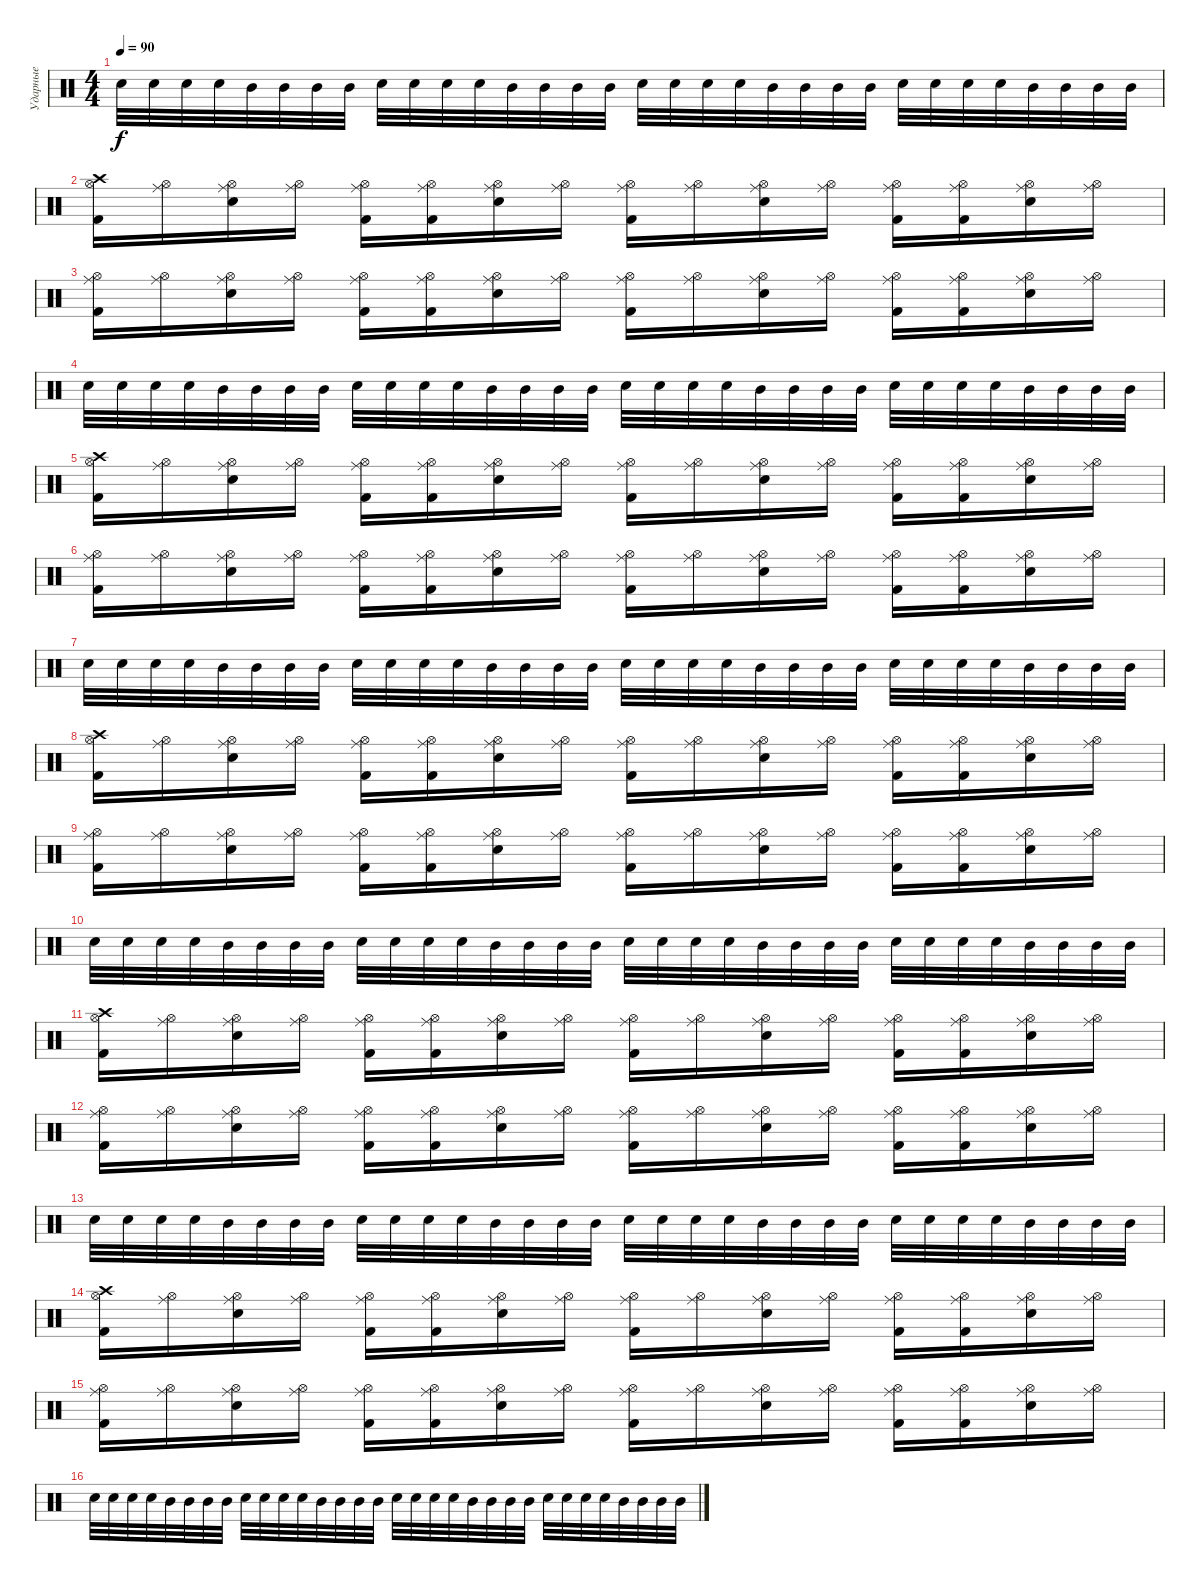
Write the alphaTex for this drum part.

\track ("Ударные" "Ударные") {instrument percussion}
\staff {score}
\articulation defaults
\ts (4 4)
\tempo 90
\clef neutral
\ks c "Electric Snare (hit)".32{dy f} "Electric Snare (hit)".32 "Electric Snare (hit)".32 "Electric Snare (hit)".32 "Mid Tom (hit)".32 "Mid Tom (hit)".32 "Mid Tom (hit)".32 "Mid Tom (hit)".32 "Electric Snare (hit)".32 "Electric Snare (hit)".32 "Electric Snare (hit)".32 "Electric Snare (hit)".32 "Mid Tom (hit)".32 "Mid Tom (hit)".32 "Mid Tom (hit)".32 "Mid Tom (hit)".32 "Electric Snare (hit)".32 "Electric Snare (hit)".32 "Electric Snare (hit)".32 "Electric Snare (hit)".32 "Mid Tom (hit)".32 "Mid Tom (hit)".32 "Mid Tom (hit)".32 "Mid Tom (hit)".32 "Electric Snare (hit)".32 "Electric Snare (hit)".32 "Electric Snare (hit)".32 "Electric Snare (hit)".32 "Mid Tom (hit)".32 "Mid Tom (hit)".32 "Mid Tom (hit)".32 "Mid Tom (hit)".32
|
("Kick (hit) 2" "Crash high (hit)" "Hi-Hat (open)").16 ("Ride (middle)" "Hi-Hat (open)").16 ("Electric Snare (hit)" "Ride (middle)" "Hi-Hat (open)").16 ("Ride (middle)" "Hi-Hat (open)").16 ("Kick (hit) 2" "Ride (middle)" "Hi-Hat (open)").16 ("Kick (hit) 2" "Ride (middle)" "Hi-Hat (open)").16 ("Electric Snare (hit)" "Ride (middle)" "Hi-Hat (open)").16 ("Ride (middle)" "Hi-Hat (open)").16 ("Kick (hit) 2" "Ride (middle)" "Hi-Hat (open)").16 ("Ride (middle)" "Hi-Hat (open)").16 ("Electric Snare (hit)" "Ride (middle)" "Hi-Hat (open)").16 ("Ride (middle)" "Hi-Hat (open)").16 ("Kick (hit) 2" "Ride (middle)" "Hi-Hat (open)").16 ("Kick (hit) 2" "Ride (middle)" "Hi-Hat (open)").16 ("Electric Snare (hit)" "Ride (middle)" "Hi-Hat (open)").16 ("Ride (middle)" "Hi-Hat (open)").16 |
("Kick (hit) 2" "Ride (middle)" "Hi-Hat (open)").16 ("Ride (middle)" "Hi-Hat (open)").16 ("Electric Snare (hit)" "Ride (middle)" "Hi-Hat (open)").16 ("Ride (middle)" "Hi-Hat (open)").16 ("Kick (hit) 2" "Ride (middle)" "Hi-Hat (open)").16 ("Kick (hit) 2" "Ride (middle)" "Hi-Hat (open)").16 ("Electric Snare (hit)" "Ride (middle)" "Hi-Hat (open)").16 ("Ride (middle)" "Hi-Hat (open)").16 ("Kick (hit) 2" "Ride (middle)" "Hi-Hat (open)").16 ("Ride (middle)" "Hi-Hat (open)").16 ("Electric Snare (hit)" "Ride (middle)" "Hi-Hat (open)").16 ("Ride (middle)" "Hi-Hat (open)").16 ("Kick (hit) 2" "Ride (middle)" "Hi-Hat (open)").16 ("Kick (hit) 2" "Ride (middle)" "Hi-Hat (open)").16 ("Electric Snare (hit)" "Ride (middle)" "Hi-Hat (open)").16 ("Ride (middle)" "Hi-Hat (open)").16 |
"Electric Snare (hit)".32 "Electric Snare (hit)".32 "Electric Snare (hit)".32 "Electric Snare (hit)".32 "Mid Tom (hit)".32 "Mid Tom (hit)".32 "Mid Tom (hit)".32 "Mid Tom (hit)".32 "Electric Snare (hit)".32 "Electric Snare (hit)".32 "Electric Snare (hit)".32 "Electric Snare (hit)".32 "Mid Tom (hit)".32 "Mid Tom (hit)".32 "Mid Tom (hit)".32 "Mid Tom (hit)".32 "Electric Snare (hit)".32 "Electric Snare (hit)".32 "Electric Snare (hit)".32 "Electric Snare (hit)".32 "Mid Tom (hit)".32 "Mid Tom (hit)".32 "Mid Tom (hit)".32 "Mid Tom (hit)".32 "Electric Snare (hit)".32 "Electric Snare (hit)".32 "Electric Snare (hit)".32 "Electric Snare (hit)".32 "Mid Tom (hit)".32 "Mid Tom (hit)".32 "Mid Tom (hit)".32 "Mid Tom (hit)".32 |
("Kick (hit) 2" "Crash high (hit)" "Hi-Hat (open)").16 ("Ride (middle)" "Hi-Hat (open)").16 ("Electric Snare (hit)" "Ride (middle)" "Hi-Hat (open)").16 ("Ride (middle)" "Hi-Hat (open)").16 ("Kick (hit) 2" "Ride (middle)" "Hi-Hat (open)").16 ("Kick (hit) 2" "Ride (middle)" "Hi-Hat (open)").16 ("Electric Snare (hit)" "Ride (middle)" "Hi-Hat (open)").16 ("Ride (middle)" "Hi-Hat (open)").16 ("Kick (hit) 2" "Ride (middle)" "Hi-Hat (open)").16 ("Ride (middle)" "Hi-Hat (open)").16 ("Electric Snare (hit)" "Ride (middle)" "Hi-Hat (open)").16 ("Ride (middle)" "Hi-Hat (open)").16 ("Kick (hit) 2" "Ride (middle)" "Hi-Hat (open)").16 ("Kick (hit) 2" "Ride (middle)" "Hi-Hat (open)").16 ("Electric Snare (hit)" "Ride (middle)" "Hi-Hat (open)").16 ("Ride (middle)" "Hi-Hat (open)").16 |
("Kick (hit) 2" "Ride (middle)" "Hi-Hat (open)").16 ("Ride (middle)" "Hi-Hat (open)").16 ("Electric Snare (hit)" "Ride (middle)" "Hi-Hat (open)").16 ("Ride (middle)" "Hi-Hat (open)").16 ("Kick (hit) 2" "Ride (middle)" "Hi-Hat (open)").16 ("Kick (hit) 2" "Ride (middle)" "Hi-Hat (open)").16 ("Electric Snare (hit)" "Ride (middle)" "Hi-Hat (open)").16 ("Ride (middle)" "Hi-Hat (open)").16 ("Kick (hit) 2" "Ride (middle)" "Hi-Hat (open)").16 ("Ride (middle)" "Hi-Hat (open)").16 ("Electric Snare (hit)" "Ride (middle)" "Hi-Hat (open)").16 ("Ride (middle)" "Hi-Hat (open)").16 ("Kick (hit) 2" "Ride (middle)" "Hi-Hat (open)").16 ("Kick (hit) 2" "Ride (middle)" "Hi-Hat (open)").16 ("Electric Snare (hit)" "Ride (middle)" "Hi-Hat (open)").16 ("Ride (middle)" "Hi-Hat (open)").16 |
"Electric Snare (hit)".32 "Electric Snare (hit)".32 "Electric Snare (hit)".32 "Electric Snare (hit)".32 "Mid Tom (hit)".32 "Mid Tom (hit)".32 "Mid Tom (hit)".32 "Mid Tom (hit)".32 "Electric Snare (hit)".32 "Electric Snare (hit)".32 "Electric Snare (hit)".32 "Electric Snare (hit)".32 "Mid Tom (hit)".32 "Mid Tom (hit)".32 "Mid Tom (hit)".32 "Mid Tom (hit)".32 "Electric Snare (hit)".32 "Electric Snare (hit)".32 "Electric Snare (hit)".32 "Electric Snare (hit)".32 "Mid Tom (hit)".32 "Mid Tom (hit)".32 "Mid Tom (hit)".32 "Mid Tom (hit)".32 "Electric Snare (hit)".32 "Electric Snare (hit)".32 "Electric Snare (hit)".32 "Electric Snare (hit)".32 "Mid Tom (hit)".32 "Mid Tom (hit)".32 "Mid Tom (hit)".32 "Mid Tom (hit)".32 |
("Kick (hit) 2" "Crash high (hit)" "Hi-Hat (open)").16 ("Ride (middle)" "Hi-Hat (open)").16 ("Electric Snare (hit)" "Ride (middle)" "Hi-Hat (open)").16 ("Ride (middle)" "Hi-Hat (open)").16 ("Kick (hit) 2" "Ride (middle)" "Hi-Hat (open)").16 ("Kick (hit) 2" "Ride (middle)" "Hi-Hat (open)").16 ("Electric Snare (hit)" "Ride (middle)" "Hi-Hat (open)").16 ("Ride (middle)" "Hi-Hat (open)").16 ("Kick (hit) 2" "Ride (middle)" "Hi-Hat (open)").16 ("Ride (middle)" "Hi-Hat (open)").16 ("Electric Snare (hit)" "Ride (middle)" "Hi-Hat (open)").16 ("Ride (middle)" "Hi-Hat (open)").16 ("Kick (hit) 2" "Ride (middle)" "Hi-Hat (open)").16 ("Kick (hit) 2" "Ride (middle)" "Hi-Hat (open)").16 ("Electric Snare (hit)" "Ride (middle)" "Hi-Hat (open)").16 ("Ride (middle)" "Hi-Hat (open)").16 |
("Kick (hit) 2" "Ride (middle)" "Hi-Hat (open)").16 ("Ride (middle)" "Hi-Hat (open)").16 ("Electric Snare (hit)" "Ride (middle)" "Hi-Hat (open)").16 ("Ride (middle)" "Hi-Hat (open)").16 ("Kick (hit) 2" "Ride (middle)" "Hi-Hat (open)").16 ("Kick (hit) 2" "Ride (middle)" "Hi-Hat (open)").16 ("Electric Snare (hit)" "Ride (middle)" "Hi-Hat (open)").16 ("Ride (middle)" "Hi-Hat (open)").16 ("Kick (hit) 2" "Ride (middle)" "Hi-Hat (open)").16 ("Ride (middle)" "Hi-Hat (open)").16 ("Electric Snare (hit)" "Ride (middle)" "Hi-Hat (open)").16 ("Ride (middle)" "Hi-Hat (open)").16 ("Kick (hit) 2" "Ride (middle)" "Hi-Hat (open)").16 ("Kick (hit) 2" "Ride (middle)" "Hi-Hat (open)").16 ("Electric Snare (hit)" "Ride (middle)" "Hi-Hat (open)").16 ("Ride (middle)" "Hi-Hat (open)").16 |
"Electric Snare (hit)".32 "Electric Snare (hit)".32 "Electric Snare (hit)".32 "Electric Snare (hit)".32 "Mid Tom (hit)".32 "Mid Tom (hit)".32 "Mid Tom (hit)".32 "Mid Tom (hit)".32 "Electric Snare (hit)".32 "Electric Snare (hit)".32 "Electric Snare (hit)".32 "Electric Snare (hit)".32 "Mid Tom (hit)".32 "Mid Tom (hit)".32 "Mid Tom (hit)".32 "Mid Tom (hit)".32 "Electric Snare (hit)".32 "Electric Snare (hit)".32 "Electric Snare (hit)".32 "Electric Snare (hit)".32 "Mid Tom (hit)".32 "Mid Tom (hit)".32 "Mid Tom (hit)".32 "Mid Tom (hit)".32 "Electric Snare (hit)".32 "Electric Snare (hit)".32 "Electric Snare (hit)".32 "Electric Snare (hit)".32 "Mid Tom (hit)".32 "Mid Tom (hit)".32 "Mid Tom (hit)".32 "Mid Tom (hit)".32 |
("Kick (hit) 2" "Crash high (hit)" "Hi-Hat (open)").16 ("Ride (middle)" "Hi-Hat (open)").16 ("Electric Snare (hit)" "Ride (middle)" "Hi-Hat (open)").16 ("Ride (middle)" "Hi-Hat (open)").16 ("Kick (hit) 2" "Ride (middle)" "Hi-Hat (open)").16 ("Kick (hit) 2" "Ride (middle)" "Hi-Hat (open)").16 ("Electric Snare (hit)" "Ride (middle)" "Hi-Hat (open)").16 ("Ride (middle)" "Hi-Hat (open)").16 ("Kick (hit) 2" "Ride (middle)" "Hi-Hat (open)").16 ("Ride (middle)" "Hi-Hat (open)").16 ("Electric Snare (hit)" "Ride (middle)" "Hi-Hat (open)").16 ("Ride (middle)" "Hi-Hat (open)").16 ("Kick (hit) 2" "Ride (middle)" "Hi-Hat (open)").16 ("Kick (hit) 2" "Ride (middle)" "Hi-Hat (open)").16 ("Electric Snare (hit)" "Ride (middle)" "Hi-Hat (open)").16 ("Ride (middle)" "Hi-Hat (open)").16 |
("Kick (hit) 2" "Ride (middle)" "Hi-Hat (open)").16 ("Ride (middle)" "Hi-Hat (open)").16 ("Electric Snare (hit)" "Ride (middle)" "Hi-Hat (open)").16 ("Ride (middle)" "Hi-Hat (open)").16 ("Kick (hit) 2" "Ride (middle)" "Hi-Hat (open)").16 ("Kick (hit) 2" "Ride (middle)" "Hi-Hat (open)").16 ("Electric Snare (hit)" "Ride (middle)" "Hi-Hat (open)").16 ("Ride (middle)" "Hi-Hat (open)").16 ("Kick (hit) 2" "Ride (middle)" "Hi-Hat (open)").16 ("Ride (middle)" "Hi-Hat (open)").16 ("Electric Snare (hit)" "Ride (middle)" "Hi-Hat (open)").16 ("Ride (middle)" "Hi-Hat (open)").16 ("Kick (hit) 2" "Ride (middle)" "Hi-Hat (open)").16 ("Kick (hit) 2" "Ride (middle)" "Hi-Hat (open)").16 ("Electric Snare (hit)" "Ride (middle)" "Hi-Hat (open)").16 ("Ride (middle)" "Hi-Hat (open)").16 |
"Electric Snare (hit)".32 "Electric Snare (hit)".32 "Electric Snare (hit)".32 "Electric Snare (hit)".32 "Mid Tom (hit)".32 "Mid Tom (hit)".32 "Mid Tom (hit)".32 "Mid Tom (hit)".32 "Electric Snare (hit)".32 "Electric Snare (hit)".32 "Electric Snare (hit)".32 "Electric Snare (hit)".32 "Mid Tom (hit)".32 "Mid Tom (hit)".32 "Mid Tom (hit)".32 "Mid Tom (hit)".32 "Electric Snare (hit)".32 "Electric Snare (hit)".32 "Electric Snare (hit)".32 "Electric Snare (hit)".32 "Mid Tom (hit)".32 "Mid Tom (hit)".32 "Mid Tom (hit)".32 "Mid Tom (hit)".32 "Electric Snare (hit)".32 "Electric Snare (hit)".32 "Electric Snare (hit)".32 "Electric Snare (hit)".32 "Mid Tom (hit)".32 "Mid Tom (hit)".32 "Mid Tom (hit)".32 "Mid Tom (hit)".32 |
("Kick (hit) 2" "Crash high (hit)" "Hi-Hat (open)").16 ("Ride (middle)" "Hi-Hat (open)").16 ("Electric Snare (hit)" "Ride (middle)" "Hi-Hat (open)").16 ("Ride (middle)" "Hi-Hat (open)").16 ("Kick (hit) 2" "Ride (middle)" "Hi-Hat (open)").16 ("Kick (hit) 2" "Ride (middle)" "Hi-Hat (open)").16 ("Electric Snare (hit)" "Ride (middle)" "Hi-Hat (open)").16 ("Ride (middle)" "Hi-Hat (open)").16 ("Kick (hit) 2" "Ride (middle)" "Hi-Hat (open)").16 ("Ride (middle)" "Hi-Hat (open)").16 ("Electric Snare (hit)" "Ride (middle)" "Hi-Hat (open)").16 ("Ride (middle)" "Hi-Hat (open)").16 ("Kick (hit) 2" "Ride (middle)" "Hi-Hat (open)").16 ("Kick (hit) 2" "Ride (middle)" "Hi-Hat (open)").16 ("Electric Snare (hit)" "Ride (middle)" "Hi-Hat (open)").16 ("Ride (middle)" "Hi-Hat (open)").16 |
("Kick (hit) 2" "Ride (middle)" "Hi-Hat (open)").16 ("Ride (middle)" "Hi-Hat (open)").16 ("Electric Snare (hit)" "Ride (middle)" "Hi-Hat (open)").16 ("Ride (middle)" "Hi-Hat (open)").16 ("Kick (hit) 2" "Ride (middle)" "Hi-Hat (open)").16 ("Kick (hit) 2" "Ride (middle)" "Hi-Hat (open)").16 ("Electric Snare (hit)" "Ride (middle)" "Hi-Hat (open)").16 ("Ride (middle)" "Hi-Hat (open)").16 ("Kick (hit) 2" "Ride (middle)" "Hi-Hat (open)").16 ("Ride (middle)" "Hi-Hat (open)").16 ("Electric Snare (hit)" "Ride (middle)" "Hi-Hat (open)").16 ("Ride (middle)" "Hi-Hat (open)").16 ("Kick (hit) 2" "Ride (middle)" "Hi-Hat (open)").16 ("Kick (hit) 2" "Ride (middle)" "Hi-Hat (open)").16 ("Electric Snare (hit)" "Ride (middle)" "Hi-Hat (open)").16 ("Ride (middle)" "Hi-Hat (open)").16 |
"Electric Snare (hit)".32 "Electric Snare (hit)".32 "Electric Snare (hit)".32 "Electric Snare (hit)".32 "Mid Tom (hit)".32 "Mid Tom (hit)".32 "Mid Tom (hit)".32 "Mid Tom (hit)".32 "Electric Snare (hit)".32 "Electric Snare (hit)".32 "Electric Snare (hit)".32 "Electric Snare (hit)".32 "Mid Tom (hit)".32 "Mid Tom (hit)".32 "Mid Tom (hit)".32 "Mid Tom (hit)".32 "Electric Snare (hit)".32 "Electric Snare (hit)".32 "Electric Snare (hit)".32 "Electric Snare (hit)".32 "Mid Tom (hit)".32 "Mid Tom (hit)".32 "Mid Tom (hit)".32 "Mid Tom (hit)".32 "Electric Snare (hit)".32 "Electric Snare (hit)".32 "Electric Snare (hit)".32 "Electric Snare (hit)".32 "Mid Tom (hit)".32 "Mid Tom (hit)".32 "Mid Tom (hit)".32 "Mid Tom (hit)".32
